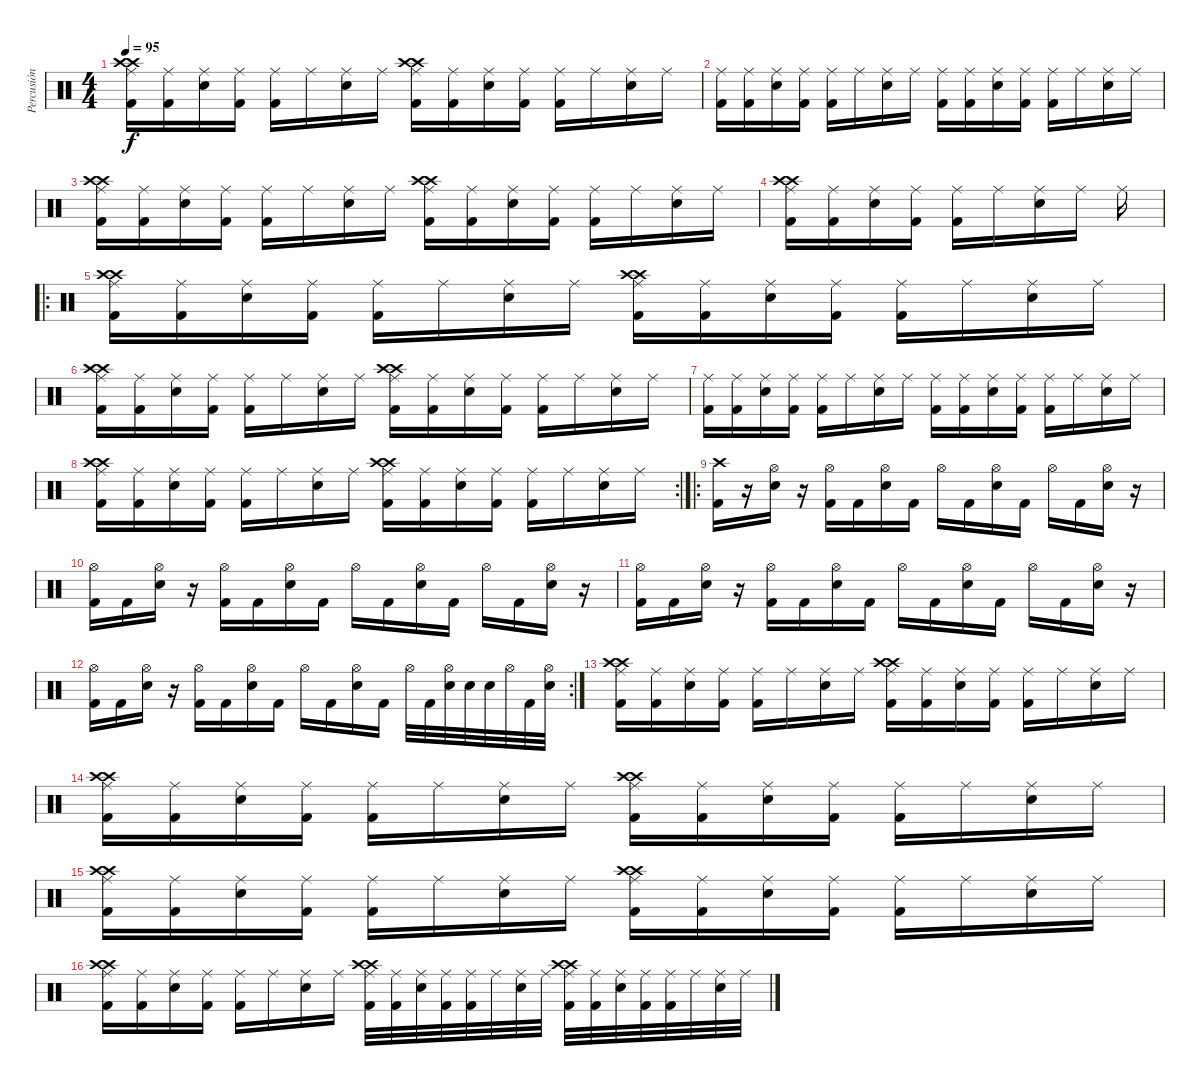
\track ("Percusión" "Percusión") {instrument percussion}
\staff {score}
\articulation defaults
\ts (4 4)
\tempo 95
\clef neutral
\ks c
("Crash high (hit)" "Crash high (hit)" "Ride (middle)" "Kick (hit) 2").16{dy f} ("Ride (middle)" "Kick (hit) 2").16 ("Ride (middle)" "Snare (hit) 2").16 ("Ride (middle)" "Kick (hit) 2").16 ("Ride (middle)" "Kick (hit) 2").16 "Ride (middle)".16 ("Ride (middle)" "Snare (hit) 2").16 "Ride (middle)".16 ("Crash high (hit)" "Crash high (hit)" "Ride (middle)" "Kick (hit) 2").16 ("Ride (middle)" "Kick (hit) 2").16 ("Ride (middle)" "Snare (hit) 2").16 ("Ride (middle)" "Kick (hit) 2").16 ("Ride (middle)" "Kick (hit) 2").16 "Ride (middle)".16 ("Ride (middle)" "Snare (hit) 2").16 "Ride (middle)".16 |
("Ride (middle)" "Kick (hit) 2").16 ("Ride (middle)" "Kick (hit) 2").16 ("Ride (middle)" "Snare (hit) 2").16 ("Ride (middle)" "Kick (hit) 2").16 ("Ride (middle)" "Kick (hit) 2").16 "Ride (middle)".16 ("Ride (middle)" "Snare (hit) 2").16 "Ride (middle)".16 ("Ride (middle)" "Kick (hit) 2").16 ("Ride (middle)" "Kick (hit) 2").16 ("Ride (middle)" "Snare (hit) 2").16 ("Ride (middle)" "Kick (hit) 2").16 ("Ride (middle)" "Kick (hit) 2").16 "Ride (middle)".16 ("Ride (middle)" "Snare (hit) 2").16 "Ride (middle)".16 |
("Crash high (hit)" "Crash high (hit)" "Ride (middle)" "Kick (hit) 2").16 ("Ride (middle)" "Kick (hit) 2").16 ("Ride (middle)" "Snare (hit) 2").16 ("Ride (middle)" "Kick (hit) 2").16 ("Ride (middle)" "Kick (hit) 2").16 "Ride (middle)".16 ("Ride (middle)" "Snare (hit) 2").16 "Ride (middle)".16 ("Crash high (hit)" "Crash high (hit)" "Ride (middle)" "Kick (hit) 2").16 ("Ride (middle)" "Kick (hit) 2").16 ("Ride (middle)" "Snare (hit) 2").16 ("Ride (middle)" "Kick (hit) 2").16 ("Ride (middle)" "Kick (hit) 2").16 "Ride (middle)".16 ("Ride (middle)" "Snare (hit) 2").16 "Ride (middle)".16 |
("Crash high (hit)" "Crash high (hit)" "Ride (middle)" "Kick (hit) 2").16 ("Ride (middle)" "Kick (hit) 2").16 ("Ride (middle)" "Snare (hit) 2").16 ("Ride (middle)" "Kick (hit) 2").16 ("Ride (middle)" "Kick (hit) 2").16 "Ride (middle)".16 ("Ride (middle)" "Snare (hit) 2").16 "Ride (middle)".16 "Ride (middle)".16 |
\ro
("Crash high (hit)" "Crash high (hit)" "Ride (middle)" "Kick (hit) 2").16 ("Ride (middle)" "Kick (hit) 2").16 ("Ride (middle)" "Snare (hit) 2").16 ("Ride (middle)" "Kick (hit) 2").16 ("Ride (middle)" "Kick (hit) 2").16 "Ride (middle)".16 ("Ride (middle)" "Snare (hit) 2").16 "Ride (middle)".16 ("Crash high (hit)" "Crash high (hit)" "Ride (middle)" "Kick (hit) 2").16 ("Ride (middle)" "Kick (hit) 2").16 ("Ride (middle)" "Snare (hit) 2").16 ("Ride (middle)" "Kick (hit) 2").16 ("Ride (middle)" "Kick (hit) 2").16 "Ride (middle)".16 ("Ride (middle)" "Snare (hit) 2").16 "Ride (middle)".16 |
("Crash high (hit)" "Crash high (hit)" "Ride (middle)" "Kick (hit) 2").16 ("Ride (middle)" "Kick (hit) 2").16 ("Ride (middle)" "Snare (hit) 2").16 ("Ride (middle)" "Kick (hit) 2").16 ("Ride (middle)" "Kick (hit) 2").16 "Ride (middle)".16 ("Ride (middle)" "Snare (hit) 2").16 "Ride (middle)".16 ("Crash high (hit)" "Crash high (hit)" "Ride (middle)" "Kick (hit) 2").16 ("Ride (middle)" "Kick (hit) 2").16 ("Ride (middle)" "Snare (hit) 2").16 ("Ride (middle)" "Kick (hit) 2").16 ("Ride (middle)" "Kick (hit) 2").16 "Ride (middle)".16 ("Ride (middle)" "Snare (hit) 2").16 "Ride (middle)".16 |
("Ride (middle)" "Kick (hit) 2").16 ("Ride (middle)" "Kick (hit) 2").16 ("Ride (middle)" "Snare (hit) 2").16 ("Ride (middle)" "Kick (hit) 2").16 ("Ride (middle)" "Kick (hit) 2").16 "Ride (middle)".16 ("Ride (middle)" "Snare (hit) 2").16 "Ride (middle)".16 ("Ride (middle)" "Kick (hit) 2").16 ("Ride (middle)" "Kick (hit) 2").16 ("Ride (middle)" "Snare (hit) 2").16 ("Ride (middle)" "Kick (hit) 2").16 ("Ride (middle)" "Kick (hit) 2").16 "Ride (middle)".16 ("Ride (middle)" "Snare (hit) 2").16 "Ride (middle)".16 |
\rc 2
("Crash high (hit)" "Crash high (hit)" "Ride (middle)" "Kick (hit) 2").16 ("Ride (middle)" "Kick (hit) 2").16 ("Ride (middle)" "Snare (hit) 2").16 ("Ride (middle)" "Kick (hit) 2").16 ("Ride (middle)" "Kick (hit) 2").16 "Ride (middle)".16 ("Ride (middle)" "Snare (hit) 2").16 "Ride (middle)".16 ("Crash high (hit)" "Crash high (hit)" "Ride (middle)" "Kick (hit) 2").16 ("Ride (middle)" "Kick (hit) 2").16 ("Ride (middle)" "Snare (hit) 2").16 ("Ride (middle)" "Kick (hit) 2").16 ("Ride (middle)" "Kick (hit) 2").16 "Ride (middle)".16 ("Ride (middle)" "Snare (hit) 2").16 "Ride (middle)".16 |
\ro
("Kick (hit) 2" "Crash high (hit)").16 r.16 ("Electric Snare (hit)" "Hi-Hat (open)").16 r.16 ("Kick (hit) 2" "Hi-Hat (open)").16 "Kick (hit) 2".16 ("Electric Snare (hit)" "Hi-Hat (open)").16 "Kick (hit) 2".16 "Hi-Hat (open)".16 "Kick (hit) 2".16 ("Electric Snare (hit)" "Hi-Hat (open)").16 "Kick (hit) 2".16 "Hi-Hat (open)".16 "Kick (hit) 2".16 ("Electric Snare (hit)" "Hi-Hat (open)").16 r.16 |
("Kick (hit) 2" "Hi-Hat (open)").16 "Kick (hit) 2".16 ("Electric Snare (hit)" "Hi-Hat (open)").16 r.16 ("Kick (hit) 2" "Hi-Hat (open)").16 "Kick (hit) 2".16 ("Electric Snare (hit)" "Hi-Hat (open)").16 "Kick (hit) 2".16 "Hi-Hat (open)".16 "Kick (hit) 2".16 ("Electric Snare (hit)" "Hi-Hat (open)").16 "Kick (hit) 2".16 "Hi-Hat (open)".16 "Kick (hit) 2".16 ("Electric Snare (hit)" "Hi-Hat (open)").16 r.16 |
("Kick (hit) 2" "Hi-Hat (open)").16 "Kick (hit) 2".16 ("Electric Snare (hit)" "Hi-Hat (open)").16 r.16 ("Kick (hit) 2" "Hi-Hat (open)").16 "Kick (hit) 2".16 ("Electric Snare (hit)" "Hi-Hat (open)").16 "Kick (hit) 2".16 "Hi-Hat (open)".16 "Kick (hit) 2".16 ("Electric Snare (hit)" "Hi-Hat (open)").16 "Kick (hit) 2".16 "Hi-Hat (open)".16 "Kick (hit) 2".16 ("Electric Snare (hit)" "Hi-Hat (open)").16 r.16 |
\rc 2
("Kick (hit) 2" "Hi-Hat (open)").16 "Kick (hit) 2".16 ("Electric Snare (hit)" "Hi-Hat (open)").16 r.16 ("Kick (hit) 2" "Hi-Hat (open)").16 "Kick (hit) 2".16 ("Electric Snare (hit)" "Hi-Hat (open)").16 "Kick (hit) 2".16 "Hi-Hat (open)".16 "Kick (hit) 2".16 ("Electric Snare (hit)" "Hi-Hat (open)").16 "Kick (hit) 2".16 "Hi-Hat (open)".32 "Kick (hit) 2".32 ("Electric Snare (hit)" "Hi-Hat (open)").32 "Electric Snare (hit)".32 "Electric Snare (hit)".32 "Hi-Hat (open)".32 "Kick (hit) 2".32 ("Electric Snare (hit)" "Hi-Hat (open)").32 |
("Crash high (hit)" "Crash high (hit)" "Ride (middle)" "Kick (hit) 2").16 ("Ride (middle)" "Kick (hit) 2").16 ("Ride (middle)" "Snare (hit) 2").16 ("Ride (middle)" "Kick (hit) 2").16 ("Ride (middle)" "Kick (hit) 2").16 "Ride (middle)".16 ("Ride (middle)" "Snare (hit) 2").16 "Ride (middle)".16 ("Crash high (hit)" "Crash high (hit)" "Ride (middle)" "Kick (hit) 2").16 ("Ride (middle)" "Kick (hit) 2").16 ("Ride (middle)" "Snare (hit) 2").16 ("Ride (middle)" "Kick (hit) 2").16 ("Ride (middle)" "Kick (hit) 2").16 "Ride (middle)".16 ("Ride (middle)" "Snare (hit) 2").16 "Ride (middle)".16 |
("Crash high (hit)" "Crash high (hit)" "Ride (middle)" "Kick (hit) 2").16 ("Ride (middle)" "Kick (hit) 2").16 ("Ride (middle)" "Snare (hit) 2").16 ("Ride (middle)" "Kick (hit) 2").16 ("Ride (middle)" "Kick (hit) 2").16 "Ride (middle)".16 ("Ride (middle)" "Snare (hit) 2").16 "Ride (middle)".16 ("Crash high (hit)" "Crash high (hit)" "Ride (middle)" "Kick (hit) 2").16 ("Ride (middle)" "Kick (hit) 2").16 ("Ride (middle)" "Snare (hit) 2").16 ("Ride (middle)" "Kick (hit) 2").16 ("Ride (middle)" "Kick (hit) 2").16 "Ride (middle)".16 ("Ride (middle)" "Snare (hit) 2").16 "Ride (middle)".16 |
("Crash high (hit)" "Crash high (hit)" "Ride (middle)" "Kick (hit) 2").16 ("Ride (middle)" "Kick (hit) 2").16 ("Ride (middle)" "Snare (hit) 2").16 ("Ride (middle)" "Kick (hit) 2").16 ("Ride (middle)" "Kick (hit) 2").16 "Ride (middle)".16 ("Ride (middle)" "Snare (hit) 2").16 "Ride (middle)".16 ("Crash high (hit)" "Crash high (hit)" "Ride (middle)" "Kick (hit) 2").16 ("Ride (middle)" "Kick (hit) 2").16 ("Ride (middle)" "Snare (hit) 2").16 ("Ride (middle)" "Kick (hit) 2").16 ("Ride (middle)" "Kick (hit) 2").16 "Ride (middle)".16 ("Ride (middle)" "Snare (hit) 2").16 "Ride (middle)".16 |
("Crash high (hit)" "Crash high (hit)" "Ride (middle)" "Kick (hit) 2").16 ("Ride (middle)" "Kick (hit) 2").16 ("Ride (middle)" "Snare (hit) 2").16 ("Ride (middle)" "Kick (hit) 2").16 ("Ride (middle)" "Kick (hit) 2").16 "Ride (middle)".16 ("Ride (middle)" "Snare (hit) 2").16 "Ride (middle)".16 ("Crash high (hit)" "Crash high (hit)" "Ride (middle)" "Kick (hit) 2").32 ("Ride (middle)" "Kick (hit) 2").32 ("Ride (middle)" "Snare (hit) 2").32 ("Ride (middle)" "Kick (hit) 2").32 ("Ride (middle)" "Kick (hit) 2").32 "Ride (middle)".32 ("Ride (middle)" "Snare (hit) 2").32 "Ride (middle)".32 ("Crash high (hit)" "Crash high (hit)" "Ride (middle)" "Kick (hit) 2").32 ("Ride (middle)" "Kick (hit) 2").32 ("Ride (middle)" "Snare (hit) 2").32 ("Ride (middle)" "Kick (hit) 2").32 ("Ride (middle)" "Kick (hit) 2").32 "Ride (middle)".32 ("Ride (middle)" "Snare (hit) 2").32 "Ride (middle)".32
